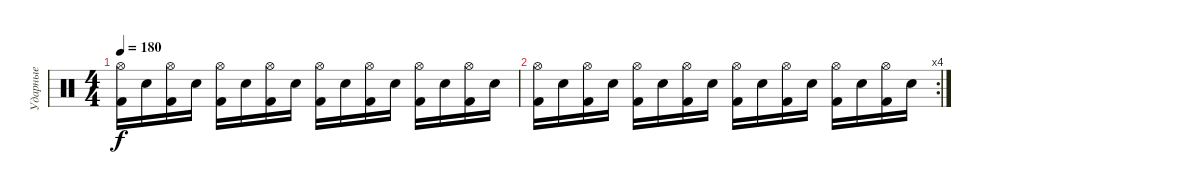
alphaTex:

\track ("Ударные" "Ударные") {instrument percussion}
\staff {score}
\articulation defaults
\ts (4 4)
\tempo 180
\clef neutral
\ks c
("Kick (hit) 2" "Hi-Hat (open)").16{dy f} "Electric Snare (hit)".16 ("Kick (hit) 2" "Hi-Hat (open)").16 "Electric Snare (hit)".16 ("Kick (hit) 2" "Hi-Hat (open)").16 "Electric Snare (hit)".16 ("Kick (hit) 2" "Hi-Hat (open)").16 "Electric Snare (hit)".16 ("Kick (hit) 2" "Hi-Hat (open)").16 "Electric Snare (hit)".16 ("Kick (hit) 2" "Hi-Hat (open)").16 "Electric Snare (hit)".16 ("Kick (hit) 2" "Hi-Hat (open)").16 "Electric Snare (hit)".16 ("Kick (hit) 2" "Hi-Hat (open)").16 "Electric Snare (hit)".16 |
\rc 4
("Kick (hit) 2" "Hi-Hat (open)").16 "Electric Snare (hit)".16 ("Kick (hit) 2" "Hi-Hat (open)").16 "Electric Snare (hit)".16 ("Kick (hit) 2" "Hi-Hat (open)").16 "Electric Snare (hit)".16 ("Kick (hit) 2" "Hi-Hat (open)").16 "Electric Snare (hit)".16 ("Kick (hit) 2" "Hi-Hat (open)").16 "Electric Snare (hit)".16 ("Kick (hit) 2" "Hi-Hat (open)").16 "Electric Snare (hit)".16 ("Kick (hit) 2" "Hi-Hat (open)").16 "Electric Snare (hit)".16 ("Kick (hit) 2" "Hi-Hat (open)").16 "Electric Snare (hit)".16
